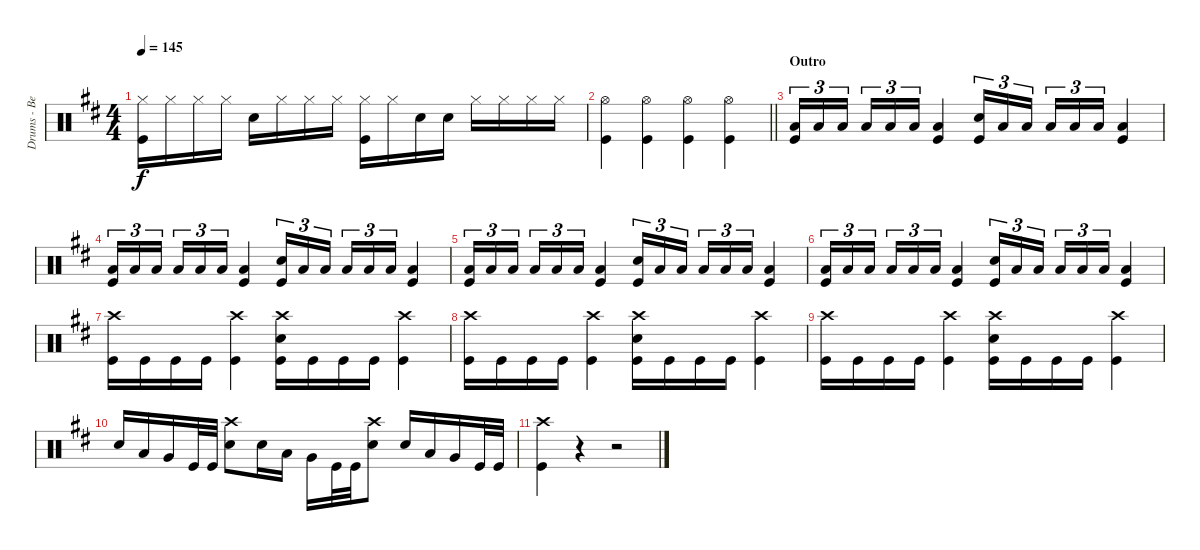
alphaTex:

\track ("Drums - Ben Johnston" "Drums - Be") {instrument percussion}
\staff {score}
\articulation defaults
\ts (4 4)
\tempo 145
\clef neutral
\ks d
("Hi-Hat (closed)" "Kick (hit)").16{dy f} "Hi-Hat (closed)".16 "Hi-Hat (closed)".16 "Hi-Hat (closed)".16 "Snare (hit) 2".16 "Hi-Hat (closed)".16 "Hi-Hat (closed)".16 "Hi-Hat (closed)".16 ("Hi-Hat (closed)" "Kick (hit)").16 "Hi-Hat (closed)".16 "Snare (hit) 2".16 "Snare (hit) 2".16 "Hi-Hat (closed)".16 "Hi-Hat (closed)".16 "Hi-Hat (closed)".16 "Hi-Hat (closed)".16 |
\barLineRight lightlight
("Hi-Hat (open)" "Kick (hit)").4 ("Hi-Hat (open)" "Kick (hit)").4 ("Hi-Hat (open)" "Kick (hit)").4 ("Hi-Hat (open)" "Kick (hit)").4 |
\section ("" "Outro")
("Low Floor Tom (hit)" "Kick (hit)").16{tu (3 2)} "Low Floor Tom (hit)".16{tu (3 2)} "Low Floor Tom (hit)".16{tu (3 2) beam splitsecondary} "Low Floor Tom (hit)".16{tu (3 2)} "Low Floor Tom (hit)".16{tu (3 2)} "Low Floor Tom (hit)".16{tu (3 2)} ("Low Floor Tom (hit)" "Kick (hit)").4 ("Snare (hit) 2" "Kick (hit)").16{tu (3 2)} "Low Floor Tom (hit)".16{tu (3 2)} "Low Floor Tom (hit)".16{tu (3 2) beam splitsecondary} "Low Floor Tom (hit)".16{tu (3 2)} "Low Floor Tom (hit)".16{tu (3 2)} "Low Floor Tom (hit)".16{tu (3 2)} ("Low Floor Tom (hit)" "Kick (hit)").4 |
("Low Floor Tom (hit)" "Kick (hit)").16{tu (3 2)} "Low Floor Tom (hit)".16{tu (3 2)} "Low Floor Tom (hit)".16{tu (3 2) beam splitsecondary} "Low Floor Tom (hit)".16{tu (3 2)} "Low Floor Tom (hit)".16{tu (3 2)} "Low Floor Tom (hit)".16{tu (3 2)} ("Low Floor Tom (hit)" "Kick (hit)").4 ("Snare (hit) 2" "Kick (hit)").16{tu (3 2)} "Low Floor Tom (hit)".16{tu (3 2)} "Low Floor Tom (hit)".16{tu (3 2) beam splitsecondary} "Low Floor Tom (hit)".16{tu (3 2)} "Low Floor Tom (hit)".16{tu (3 2)} "Low Floor Tom (hit)".16{tu (3 2)} ("Low Floor Tom (hit)" "Kick (hit)").4 |
("Low Floor Tom (hit)" "Kick (hit)").16{tu (3 2)} "Low Floor Tom (hit)".16{tu (3 2)} "Low Floor Tom (hit)".16{tu (3 2) beam splitsecondary} "Low Floor Tom (hit)".16{tu (3 2)} "Low Floor Tom (hit)".16{tu (3 2)} "Low Floor Tom (hit)".16{tu (3 2)} ("Low Floor Tom (hit)" "Kick (hit)").4 ("Snare (hit) 2" "Kick (hit)").16{tu (3 2)} "Low Floor Tom (hit)".16{tu (3 2)} "Low Floor Tom (hit)".16{tu (3 2) beam splitsecondary} "Low Floor Tom (hit)".16{tu (3 2)} "Low Floor Tom (hit)".16{tu (3 2)} "Low Floor Tom (hit)".16{tu (3 2)} ("Low Floor Tom (hit)" "Kick (hit)").4 |
("Low Floor Tom (hit)" "Kick (hit)").16{tu (3 2)} "Low Floor Tom (hit)".16{tu (3 2)} "Low Floor Tom (hit)".16{tu (3 2) beam splitsecondary} "Low Floor Tom (hit)".16{tu (3 2)} "Low Floor Tom (hit)".16{tu (3 2)} "Low Floor Tom (hit)".16{tu (3 2)} ("Low Floor Tom (hit)" "Kick (hit)").4 ("Snare (hit) 2" "Kick (hit)").16{tu (3 2)} "Low Floor Tom (hit)".16{tu (3 2)} "Low Floor Tom (hit)".16{tu (3 2) beam splitsecondary} "Low Floor Tom (hit)".16{tu (3 2)} "Low Floor Tom (hit)".16{tu (3 2)} "Low Floor Tom (hit)".16{tu (3 2)} ("Low Floor Tom (hit)" "Kick (hit)").4 |
("Crash high (hit)" "Kick (hit)").16 "Kick (hit)".16 "Kick (hit)".16 "Kick (hit)".16 ("Crash high (hit)" "Kick (hit)").4 ("Crash high (hit)" "Snare (hit) 2" "Kick (hit)").16 "Kick (hit)".16 "Kick (hit)".16 "Kick (hit)".16 ("Crash high (hit)" "Kick (hit)").4 |
("Crash high (hit)" "Kick (hit)").16 "Kick (hit)".16 "Kick (hit)".16 "Kick (hit)".16 ("Crash high (hit)" "Kick (hit)").4 ("Crash high (hit)" "Snare (hit) 2" "Kick (hit)").16 "Kick (hit)".16 "Kick (hit)".16 "Kick (hit)".16 ("Crash high (hit)" "Kick (hit)").4 |
("Crash high (hit)" "Kick (hit)").16 "Kick (hit)".16 "Kick (hit)".16 "Kick (hit)".16 ("Crash high (hit)" "Kick (hit)").4 ("Crash high (hit)" "Snare (hit) 2" "Kick (hit)").16 "Kick (hit)".16 "Kick (hit)".16 "Kick (hit)".16 ("Crash high (hit)" "Kick (hit)").4 |
"Snare (hit) 2".16 "Low Tom (hit)".16 "Very Low Tom (hit)".16 "Kick (hit)".32 "Kick (hit)".32 ("Crash high (hit)" "Snare (hit) 2").8 "Snare (hit) 2".16 "Low Tom (hit)".16 "Very Low Tom (hit)".16 "Kick (hit)".32 "Kick (hit)".32 ("Crash high (hit)" "Snare (hit) 2").8 "Snare (hit) 2".16 "Low Tom (hit)".16 "Very Low Tom (hit)".16 "Kick (hit)".32 "Kick (hit)".32 |
("Crash high (hit)" "Kick (hit)").4 r.4 r.2
